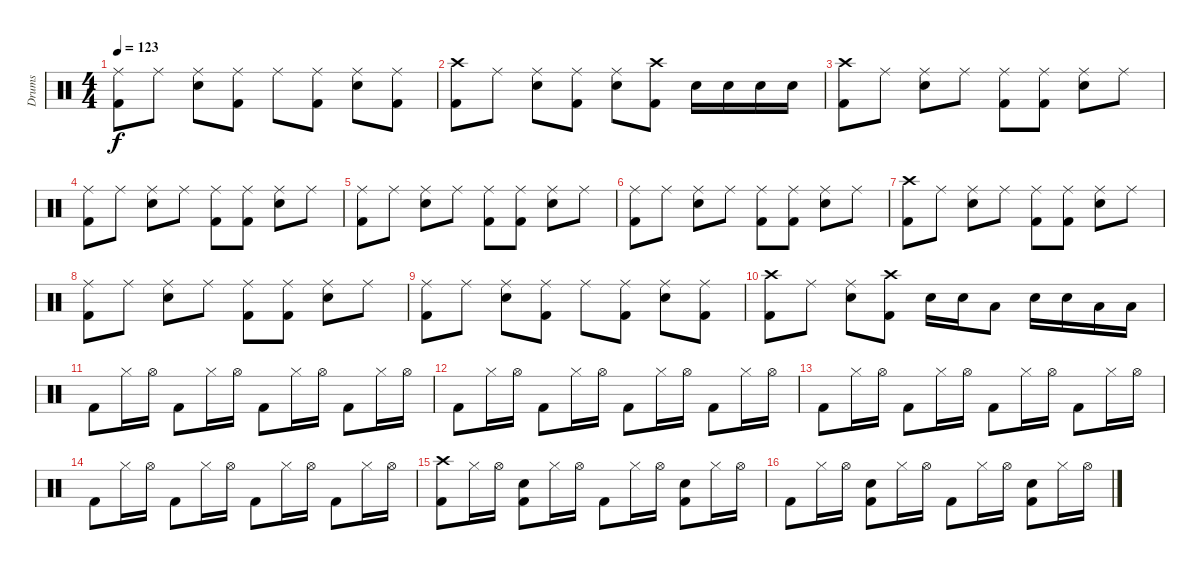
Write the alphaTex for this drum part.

\track ("Drums" "Drums") {instrument percussion}
\staff {score}
\articulation defaults
\ts (4 4)
\tempo 123
\clef neutral
\ks c
("Ride (middle)" "Kick (hit) 2").8{dy f} "Ride (middle)".8 ("Ride (middle)" "Snare (hit) 2").8 ("Ride (middle)" "Kick (hit) 2").8 "Ride (middle)".8 ("Ride (middle)" "Kick (hit) 2").8 ("Ride (middle)" "Snare (hit) 2").8 ("Ride (middle)" "Kick (hit) 2").8 |
("Crash high (hit)" "Kick (hit) 2").8 "Ride (middle)".8 ("Ride (middle)" "Snare (hit) 2").8 ("Ride (middle)" "Kick (hit) 2").8 ("Ride (middle)" "Snare (hit) 2").8 ("Crash high (hit)" "Kick (hit) 2").8 "Snare (hit) 2".16 "Snare (hit) 2".16 "Snare (hit) 2".16 "Snare (hit) 2".16 |
("Crash high (hit)" "Kick (hit) 2").8 "Ride (middle)".8 ("Ride (middle)" "Snare (hit) 2").8 "Ride (middle)".8 ("Ride (middle)" "Kick (hit) 2").8 ("Ride (middle)" "Kick (hit) 2").8 ("Ride (middle)" "Snare (hit) 2").8 "Ride (middle)".8 |
("Ride (middle)" "Kick (hit) 2").8 "Ride (middle)".8 ("Ride (middle)" "Snare (hit) 2").8 "Ride (middle)".8 ("Ride (middle)" "Kick (hit) 2").8 ("Ride (middle)" "Kick (hit) 2").8 ("Ride (middle)" "Snare (hit) 2").8 "Ride (middle)".8 |
("Ride (middle)" "Kick (hit) 2").8 "Ride (middle)".8 ("Ride (middle)" "Snare (hit) 2").8 "Ride (middle)".8 ("Ride (middle)" "Kick (hit) 2").8 ("Ride (middle)" "Kick (hit) 2").8 ("Ride (middle)" "Snare (hit) 2").8 "Ride (middle)".8 |
("Ride (middle)" "Kick (hit) 2").8 "Ride (middle)".8 ("Ride (middle)" "Snare (hit) 2").8 "Ride (middle)".8 ("Ride (middle)" "Kick (hit) 2").8 ("Ride (middle)" "Kick (hit) 2").8 ("Ride (middle)" "Snare (hit) 2").8 "Ride (middle)".8 |
("Crash high (hit)" "Kick (hit) 2").8 "Ride (middle)".8 ("Ride (middle)" "Snare (hit) 2").8 "Ride (middle)".8 ("Ride (middle)" "Kick (hit) 2").8 ("Ride (middle)" "Kick (hit) 2").8 ("Ride (middle)" "Snare (hit) 2").8 "Ride (middle)".8 |
("Ride (middle)" "Kick (hit) 2").8 "Ride (middle)".8 ("Ride (middle)" "Snare (hit) 2").8 "Ride (middle)".8 ("Ride (middle)" "Kick (hit) 2").8 ("Ride (middle)" "Kick (hit) 2").8 ("Ride (middle)" "Snare (hit) 2").8 "Ride (middle)".8 |
("Ride (middle)" "Kick (hit) 2").8 "Ride (middle)".8 ("Ride (middle)" "Snare (hit) 2").8 ("Ride (middle)" "Kick (hit) 2").8 "Ride (middle)".8 ("Ride (middle)" "Kick (hit) 2").8 ("Ride (middle)" "Snare (hit) 2").8 ("Ride (middle)" "Kick (hit) 2").8 |
("Crash high (hit)" "Kick (hit) 2").8 "Ride (middle)".8 ("Ride (middle)" "Snare (hit) 2").8 ("Crash high (hit)" "Kick (hit) 2").8 "Snare (hit) 2".16 "Snare (hit) 2".16 "Low Tom (hit)".8 "Snare (hit) 2".16 "Snare (hit) 2".16 "Low Tom (hit)".16 "Low Tom (hit)".16 |
"Kick (hit) 2".8 "Hi-Hat (closed)".16 "Hi-Hat (open)".16 "Kick (hit) 2".8 "Hi-Hat (closed)".16 "Hi-Hat (open)".16 "Kick (hit) 2".8 "Hi-Hat (closed)".16 "Hi-Hat (open)".16 "Kick (hit) 2".8 "Hi-Hat (closed)".16 "Hi-Hat (open)".16 |
"Kick (hit) 2".8 "Hi-Hat (closed)".16 "Hi-Hat (open)".16 "Kick (hit) 2".8 "Hi-Hat (closed)".16 "Hi-Hat (open)".16 "Kick (hit) 2".8 "Hi-Hat (closed)".16 "Hi-Hat (open)".16 "Kick (hit) 2".8 "Hi-Hat (closed)".16 "Hi-Hat (open)".16 |
"Kick (hit) 2".8 "Hi-Hat (closed)".16 "Hi-Hat (open)".16 "Kick (hit) 2".8 "Hi-Hat (closed)".16 "Hi-Hat (open)".16 "Kick (hit) 2".8 "Hi-Hat (closed)".16 "Hi-Hat (open)".16 "Kick (hit) 2".8 "Hi-Hat (closed)".16 "Hi-Hat (open)".16 |
"Kick (hit) 2".8 "Hi-Hat (closed)".16 "Hi-Hat (open)".16 "Kick (hit) 2".8 "Hi-Hat (closed)".16 "Hi-Hat (open)".16 "Kick (hit) 2".8 "Hi-Hat (closed)".16 "Hi-Hat (open)".16 "Kick (hit) 2".8 "Hi-Hat (closed)".16 "Hi-Hat (open)".16 |
("Crash high (hit)" "Kick (hit) 2").8 "Hi-Hat (closed)".16 "Hi-Hat (open)".16 ("Snare (hit) 2" "Kick (hit) 2").8 "Hi-Hat (closed)".16 "Hi-Hat (open)".16 "Kick (hit) 2".8 "Hi-Hat (closed)".16 "Hi-Hat (open)".16 ("Snare (hit) 2" "Kick (hit) 2").8 "Hi-Hat (closed)".16 "Hi-Hat (open)".16 |
"Kick (hit) 2".8 "Hi-Hat (closed)".16 "Hi-Hat (open)".16 ("Snare (hit) 2" "Kick (hit) 2").8 "Hi-Hat (closed)".16 "Hi-Hat (open)".16 "Kick (hit) 2".8 "Hi-Hat (closed)".16 "Hi-Hat (open)".16 ("Snare (hit) 2" "Kick (hit) 2").8 "Hi-Hat (closed)".16 "Hi-Hat (open)".16
